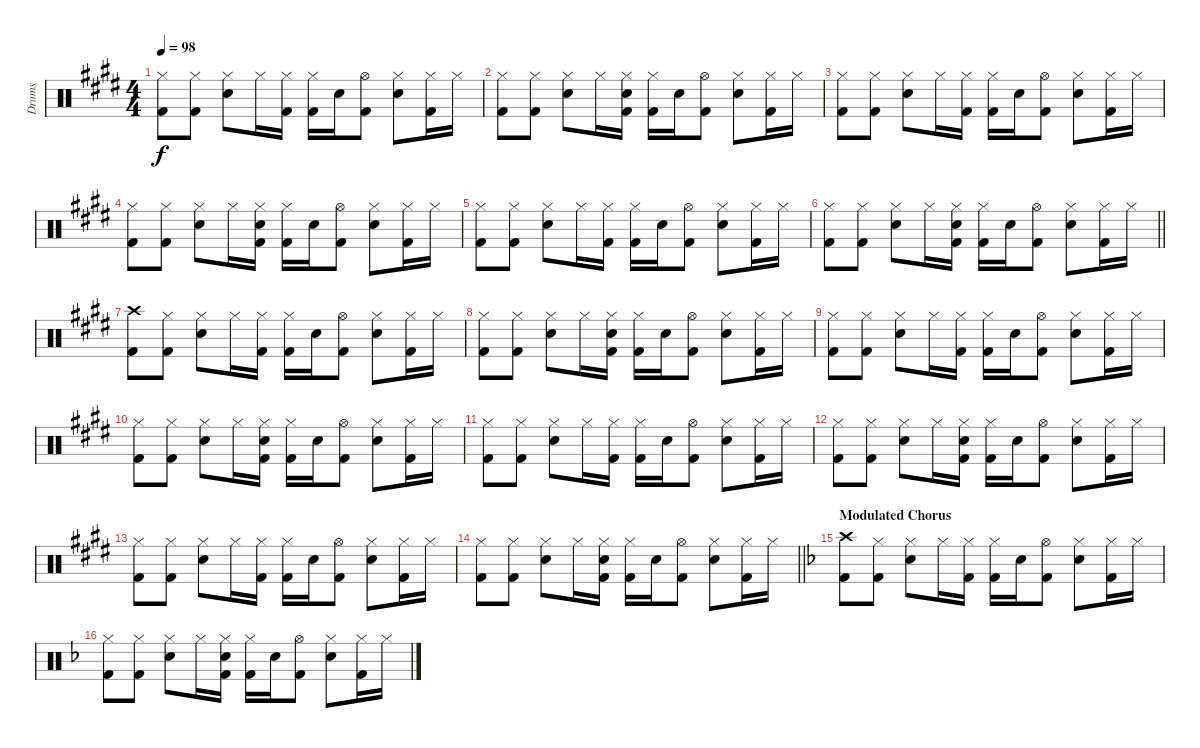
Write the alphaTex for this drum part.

\track ("Drums" "Drums") {instrument percussion}
\staff {score}
\articulation defaults
\ts (4 4)
\tempo 98
\clef neutral
\ks e
("Hi-Hat (closed)" "Kick (hit) 2").8{dy f} ("Hi-Hat (closed)" "Kick (hit) 2").8 ("Hi-Hat (closed)" "Electric Snare (hit)").8 "Hi-Hat (closed)".16 ("Hi-Hat (closed)" "Kick (hit) 2").16 ("Hi-Hat (closed)" "Kick (hit) 2").16 "Electric Snare (hit)".16 ("Hi-Hat (open)" "Kick (hit) 2").8 ("Hi-Hat (closed)" "Electric Snare (hit)").8 ("Hi-Hat (closed)" "Kick (hit) 2").16 "Hi-Hat (closed)".16 |
("Hi-Hat (closed)" "Kick (hit) 2").8 ("Hi-Hat (closed)" "Kick (hit) 2").8 ("Hi-Hat (closed)" "Electric Snare (hit)").8 "Hi-Hat (closed)".16 ("Hi-Hat (closed)" "Electric Snare (hit)" "Kick (hit) 2").16 ("Hi-Hat (closed)" "Kick (hit) 2").16 "Electric Snare (hit)".16 ("Hi-Hat (open)" "Kick (hit) 2").8 ("Hi-Hat (closed)" "Electric Snare (hit)").8 ("Hi-Hat (closed)" "Kick (hit) 2").16 "Hi-Hat (closed)".16 |
("Hi-Hat (closed)" "Kick (hit) 2").8 ("Hi-Hat (closed)" "Kick (hit) 2").8 ("Hi-Hat (closed)" "Electric Snare (hit)").8 "Hi-Hat (closed)".16 ("Hi-Hat (closed)" "Kick (hit) 2").16 ("Hi-Hat (closed)" "Kick (hit) 2").16 "Electric Snare (hit)".16 ("Hi-Hat (open)" "Kick (hit) 2").8 ("Hi-Hat (closed)" "Electric Snare (hit)").8 ("Hi-Hat (closed)" "Kick (hit) 2").16 "Hi-Hat (closed)".16 |
("Hi-Hat (closed)" "Kick (hit) 2").8 ("Hi-Hat (closed)" "Kick (hit) 2").8 ("Hi-Hat (closed)" "Electric Snare (hit)").8 "Hi-Hat (closed)".16 ("Hi-Hat (closed)" "Electric Snare (hit)" "Kick (hit) 2").16 ("Hi-Hat (closed)" "Kick (hit) 2").16 "Electric Snare (hit)".16 ("Hi-Hat (open)" "Kick (hit) 2").8 ("Hi-Hat (closed)" "Electric Snare (hit)").8 ("Hi-Hat (closed)" "Kick (hit) 2").16 "Hi-Hat (closed)".16 |
("Hi-Hat (closed)" "Kick (hit) 2").8 ("Hi-Hat (closed)" "Kick (hit) 2").8 ("Hi-Hat (closed)" "Electric Snare (hit)").8 "Hi-Hat (closed)".16 ("Hi-Hat (closed)" "Kick (hit) 2").16 ("Hi-Hat (closed)" "Kick (hit) 2").16 "Electric Snare (hit)".16 ("Hi-Hat (open)" "Kick (hit) 2").8 ("Hi-Hat (closed)" "Electric Snare (hit)").8 ("Hi-Hat (closed)" "Kick (hit) 2").16 "Hi-Hat (closed)".16 |
\barLineRight lightlight
("Hi-Hat (closed)" "Kick (hit) 2").8 ("Hi-Hat (closed)" "Kick (hit) 2").8 ("Hi-Hat (closed)" "Electric Snare (hit)").8 "Hi-Hat (closed)".16 ("Hi-Hat (closed)" "Electric Snare (hit)" "Kick (hit) 2").16 ("Hi-Hat (closed)" "Kick (hit) 2").16 "Electric Snare (hit)".16 ("Hi-Hat (open)" "Kick (hit) 2").8 ("Hi-Hat (closed)" "Electric Snare (hit)").8 ("Hi-Hat (closed)" "Kick (hit) 2").16 "Hi-Hat (closed)".16 |
\section ("" "")
("Crash high (hit)" "Kick (hit) 2").8 ("Hi-Hat (closed)" "Kick (hit) 2").8 ("Hi-Hat (closed)" "Electric Snare (hit)").8 "Hi-Hat (closed)".16 ("Hi-Hat (closed)" "Kick (hit) 2").16 ("Hi-Hat (closed)" "Kick (hit) 2").16 "Electric Snare (hit)".16 ("Hi-Hat (open)" "Kick (hit) 2").8 ("Hi-Hat (closed)" "Electric Snare (hit)").8 ("Hi-Hat (closed)" "Kick (hit) 2").16 "Hi-Hat (closed)".16 |
("Hi-Hat (closed)" "Kick (hit) 2").8 ("Hi-Hat (closed)" "Kick (hit) 2").8 ("Hi-Hat (closed)" "Electric Snare (hit)").8 "Hi-Hat (closed)".16 ("Hi-Hat (closed)" "Electric Snare (hit)" "Kick (hit) 2").16 ("Hi-Hat (closed)" "Kick (hit) 2").16 "Electric Snare (hit)".16 ("Hi-Hat (open)" "Kick (hit) 2").8 ("Hi-Hat (closed)" "Electric Snare (hit)").8 ("Hi-Hat (closed)" "Kick (hit) 2").16 "Hi-Hat (closed)".16 |
("Hi-Hat (closed)" "Kick (hit) 2").8 ("Hi-Hat (closed)" "Kick (hit) 2").8 ("Hi-Hat (closed)" "Electric Snare (hit)").8 "Hi-Hat (closed)".16 ("Hi-Hat (closed)" "Kick (hit) 2").16 ("Hi-Hat (closed)" "Kick (hit) 2").16 "Electric Snare (hit)".16 ("Hi-Hat (open)" "Kick (hit) 2").8 ("Hi-Hat (closed)" "Electric Snare (hit)").8 ("Hi-Hat (closed)" "Kick (hit) 2").16 "Hi-Hat (closed)".16 |
("Hi-Hat (closed)" "Kick (hit) 2").8 ("Hi-Hat (closed)" "Kick (hit) 2").8 ("Hi-Hat (closed)" "Electric Snare (hit)").8 "Hi-Hat (closed)".16 ("Hi-Hat (closed)" "Electric Snare (hit)" "Kick (hit) 2").16 ("Hi-Hat (closed)" "Kick (hit) 2").16 "Electric Snare (hit)".16 ("Hi-Hat (open)" "Kick (hit) 2").8 ("Hi-Hat (closed)" "Electric Snare (hit)").8 ("Hi-Hat (closed)" "Kick (hit) 2").16 "Hi-Hat (closed)".16 |
("Hi-Hat (closed)" "Kick (hit) 2").8 ("Hi-Hat (closed)" "Kick (hit) 2").8 ("Hi-Hat (closed)" "Electric Snare (hit)").8 "Hi-Hat (closed)".16 ("Hi-Hat (closed)" "Kick (hit) 2").16 ("Hi-Hat (closed)" "Kick (hit) 2").16 "Electric Snare (hit)".16 ("Hi-Hat (open)" "Kick (hit) 2").8 ("Hi-Hat (closed)" "Electric Snare (hit)").8 ("Hi-Hat (closed)" "Kick (hit) 2").16 "Hi-Hat (closed)".16 |
("Hi-Hat (closed)" "Kick (hit) 2").8 ("Hi-Hat (closed)" "Kick (hit) 2").8 ("Hi-Hat (closed)" "Electric Snare (hit)").8 "Hi-Hat (closed)".16 ("Hi-Hat (closed)" "Electric Snare (hit)" "Kick (hit) 2").16 ("Hi-Hat (closed)" "Kick (hit) 2").16 "Electric Snare (hit)".16 ("Hi-Hat (open)" "Kick (hit) 2").8 ("Hi-Hat (closed)" "Electric Snare (hit)").8 ("Hi-Hat (closed)" "Kick (hit) 2").16 "Hi-Hat (closed)".16 |
("Hi-Hat (closed)" "Kick (hit) 2").8 ("Hi-Hat (closed)" "Kick (hit) 2").8 ("Hi-Hat (closed)" "Electric Snare (hit)").8 "Hi-Hat (closed)".16 ("Hi-Hat (closed)" "Kick (hit) 2").16 ("Hi-Hat (closed)" "Kick (hit) 2").16 "Electric Snare (hit)".16 ("Hi-Hat (open)" "Kick (hit) 2").8 ("Hi-Hat (closed)" "Electric Snare (hit)").8 ("Hi-Hat (closed)" "Kick (hit) 2").16 "Hi-Hat (closed)".16 |
\barLineRight lightlight
("Hi-Hat (closed)" "Kick (hit) 2").8 ("Hi-Hat (closed)" "Kick (hit) 2").8 ("Hi-Hat (closed)" "Electric Snare (hit)").8 "Hi-Hat (closed)".16 ("Hi-Hat (closed)" "Electric Snare (hit)" "Kick (hit) 2").16 ("Hi-Hat (closed)" "Kick (hit) 2").16 "Electric Snare (hit)".16 ("Hi-Hat (open)" "Kick (hit) 2").8 ("Hi-Hat (closed)" "Electric Snare (hit)").8 ("Hi-Hat (closed)" "Kick (hit) 2").16 "Hi-Hat (closed)".16 |
\section ("" "Modulated Chorus")
\ks f
("Crash high (hit)" "Kick (hit) 2").8 ("Hi-Hat (closed)" "Kick (hit) 2").8 ("Hi-Hat (closed)" "Electric Snare (hit)").8 "Hi-Hat (closed)".16 ("Hi-Hat (closed)" "Kick (hit) 2").16 ("Hi-Hat (closed)" "Kick (hit) 2").16 "Electric Snare (hit)".16 ("Hi-Hat (open)" "Kick (hit) 2").8 ("Hi-Hat (closed)" "Electric Snare (hit)").8 ("Hi-Hat (closed)" "Kick (hit) 2").16 "Hi-Hat (closed)".16 |
("Hi-Hat (closed)" "Kick (hit) 2").8 ("Hi-Hat (closed)" "Kick (hit) 2").8 ("Hi-Hat (closed)" "Electric Snare (hit)").8 "Hi-Hat (closed)".16 ("Hi-Hat (closed)" "Electric Snare (hit)" "Kick (hit) 2").16 ("Hi-Hat (closed)" "Kick (hit) 2").16 "Electric Snare (hit)".16 ("Hi-Hat (open)" "Kick (hit) 2").8 ("Hi-Hat (closed)" "Electric Snare (hit)").8 ("Hi-Hat (closed)" "Kick (hit) 2").16 "Hi-Hat (closed)".16
